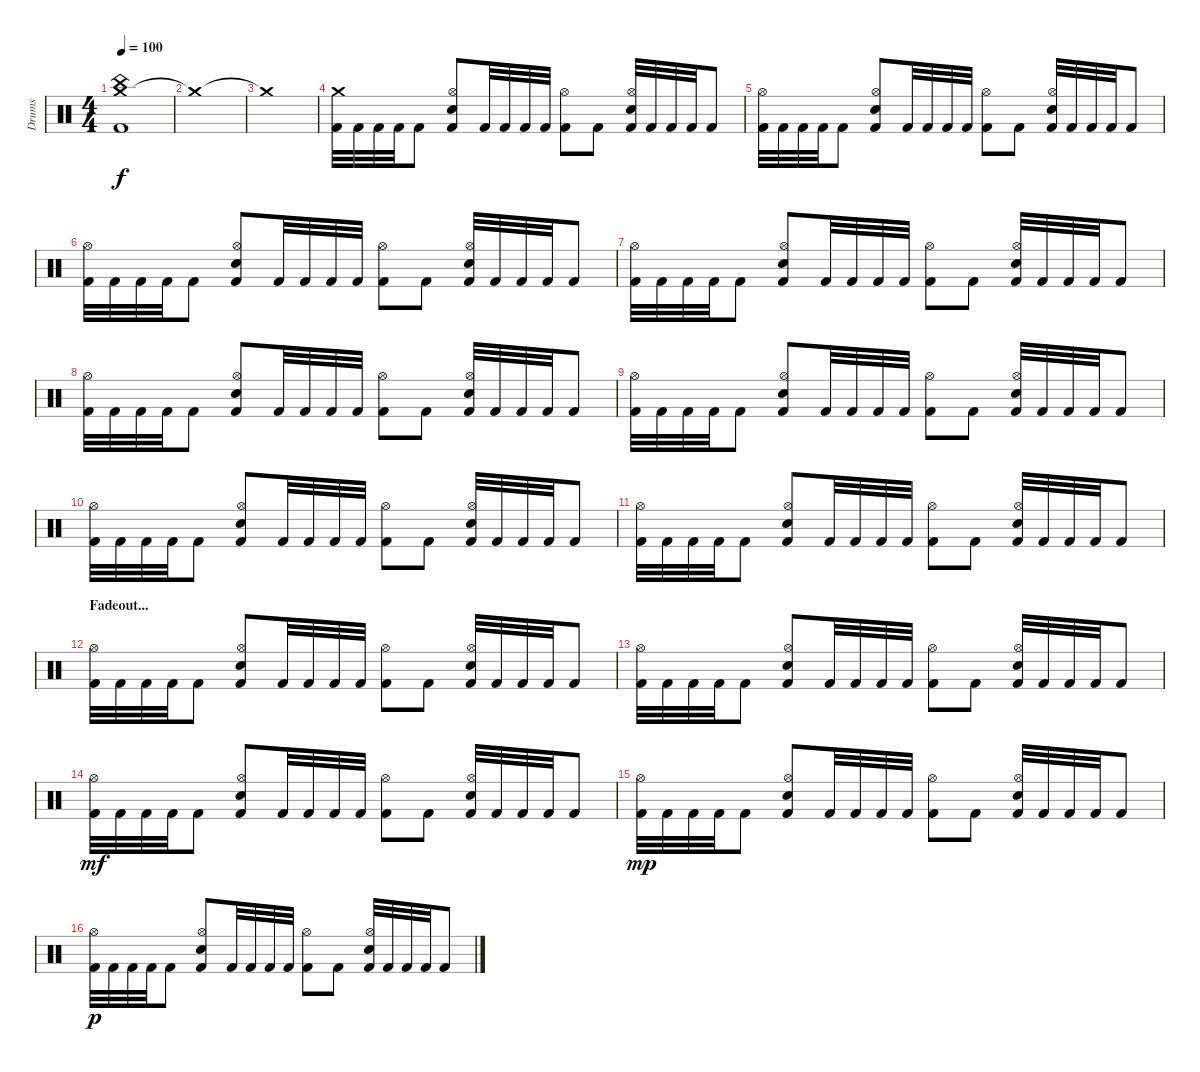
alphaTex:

\track ("Drums" "Drums") {instrument percussion}
\staff {score}
\articulation defaults
\ts (4 4)
\tempo 100
\clef neutral
\ks c
("Crash medium (hit)" "China (hit)" "Kick (hit) 2").1{dy f} |
"Crash medium (hit)"{t}.1 |
"Crash medium (hit)"{t}.1 |
("Crash medium (hit)" "Kick (hit) 2").32 "Kick (hit) 2".32 "Kick (hit) 2".32 "Kick (hit) 2".32 "Kick (hit) 2".8 ("Hi-Hat (open)" "Snare (hit) 2" "Kick (hit) 2").8 "Kick (hit) 2".32 "Kick (hit) 2".32 "Kick (hit) 2".32 "Kick (hit) 2".32 ("Hi-Hat (open)" "Kick (hit) 2").8 "Kick (hit) 2".8 ("Hi-Hat (open)" "Snare (hit) 2" "Kick (hit) 2").32 "Kick (hit) 2".32 "Kick (hit) 2".32 "Kick (hit) 2".32 "Kick (hit) 2".8 |
("Hi-Hat (open)" "Kick (hit) 2").32 "Kick (hit) 2".32 "Kick (hit) 2".32 "Kick (hit) 2".32 "Kick (hit) 2".8 ("Hi-Hat (open)" "Snare (hit) 2" "Kick (hit) 2").8 "Kick (hit) 2".32 "Kick (hit) 2".32 "Kick (hit) 2".32 "Kick (hit) 2".32 ("Hi-Hat (open)" "Kick (hit) 2").8 "Kick (hit) 2".8 ("Hi-Hat (open)" "Snare (hit) 2" "Kick (hit) 2").32 "Kick (hit) 2".32 "Kick (hit) 2".32 "Kick (hit) 2".32 "Kick (hit) 2".8 |
("Hi-Hat (open)" "Kick (hit) 2").32 "Kick (hit) 2".32 "Kick (hit) 2".32 "Kick (hit) 2".32 "Kick (hit) 2".8 ("Hi-Hat (open)" "Snare (hit) 2" "Kick (hit) 2").8 "Kick (hit) 2".32 "Kick (hit) 2".32 "Kick (hit) 2".32 "Kick (hit) 2".32 ("Hi-Hat (open)" "Kick (hit) 2").8 "Kick (hit) 2".8 ("Hi-Hat (open)" "Snare (hit) 2" "Kick (hit) 2").32 "Kick (hit) 2".32 "Kick (hit) 2".32 "Kick (hit) 2".32 "Kick (hit) 2".8 |
("Hi-Hat (open)" "Kick (hit) 2").32 "Kick (hit) 2".32 "Kick (hit) 2".32 "Kick (hit) 2".32 "Kick (hit) 2".8 ("Hi-Hat (open)" "Snare (hit) 2" "Kick (hit) 2").8 "Kick (hit) 2".32 "Kick (hit) 2".32 "Kick (hit) 2".32 "Kick (hit) 2".32 ("Hi-Hat (open)" "Kick (hit) 2").8 "Kick (hit) 2".8 ("Hi-Hat (open)" "Snare (hit) 2" "Kick (hit) 2").32 "Kick (hit) 2".32 "Kick (hit) 2".32 "Kick (hit) 2".32 "Kick (hit) 2".8 |
("Hi-Hat (open)" "Kick (hit) 2").32 "Kick (hit) 2".32 "Kick (hit) 2".32 "Kick (hit) 2".32 "Kick (hit) 2".8 ("Hi-Hat (open)" "Snare (hit) 2" "Kick (hit) 2").8 "Kick (hit) 2".32 "Kick (hit) 2".32 "Kick (hit) 2".32 "Kick (hit) 2".32 ("Hi-Hat (open)" "Kick (hit) 2").8 "Kick (hit) 2".8 ("Hi-Hat (open)" "Snare (hit) 2" "Kick (hit) 2").32 "Kick (hit) 2".32 "Kick (hit) 2".32 "Kick (hit) 2".32 "Kick (hit) 2".8 |
("Hi-Hat (open)" "Kick (hit) 2").32 "Kick (hit) 2".32 "Kick (hit) 2".32 "Kick (hit) 2".32 "Kick (hit) 2".8 ("Hi-Hat (open)" "Snare (hit) 2" "Kick (hit) 2").8 "Kick (hit) 2".32 "Kick (hit) 2".32 "Kick (hit) 2".32 "Kick (hit) 2".32 ("Hi-Hat (open)" "Kick (hit) 2").8 "Kick (hit) 2".8 ("Hi-Hat (open)" "Snare (hit) 2" "Kick (hit) 2").32 "Kick (hit) 2".32 "Kick (hit) 2".32 "Kick (hit) 2".32 "Kick (hit) 2".8 |
("Hi-Hat (open)" "Kick (hit) 2").32 "Kick (hit) 2".32 "Kick (hit) 2".32 "Kick (hit) 2".32 "Kick (hit) 2".8 ("Hi-Hat (open)" "Snare (hit) 2" "Kick (hit) 2").8 "Kick (hit) 2".32 "Kick (hit) 2".32 "Kick (hit) 2".32 "Kick (hit) 2".32 ("Hi-Hat (open)" "Kick (hit) 2").8 "Kick (hit) 2".8 ("Hi-Hat (open)" "Snare (hit) 2" "Kick (hit) 2").32 "Kick (hit) 2".32 "Kick (hit) 2".32 "Kick (hit) 2".32 "Kick (hit) 2".8 |
("Hi-Hat (open)" "Kick (hit) 2").32 "Kick (hit) 2".32 "Kick (hit) 2".32 "Kick (hit) 2".32 "Kick (hit) 2".8 ("Hi-Hat (open)" "Snare (hit) 2" "Kick (hit) 2").8 "Kick (hit) 2".32 "Kick (hit) 2".32 "Kick (hit) 2".32 "Kick (hit) 2".32 ("Hi-Hat (open)" "Kick (hit) 2").8 "Kick (hit) 2".8 ("Hi-Hat (open)" "Snare (hit) 2" "Kick (hit) 2").32 "Kick (hit) 2".32 "Kick (hit) 2".32 "Kick (hit) 2".32 "Kick (hit) 2".8 |
\section ("" "Fadeout...")
("Hi-Hat (open)" "Kick (hit) 2").32 "Kick (hit) 2".32 "Kick (hit) 2".32 "Kick (hit) 2".32 "Kick (hit) 2".8 ("Hi-Hat (open)" "Snare (hit) 2" "Kick (hit) 2").8 "Kick (hit) 2".32 "Kick (hit) 2".32 "Kick (hit) 2".32 "Kick (hit) 2".32 ("Hi-Hat (open)" "Kick (hit) 2").8 "Kick (hit) 2".8 ("Hi-Hat (open)" "Snare (hit) 2" "Kick (hit) 2").32 "Kick (hit) 2".32 "Kick (hit) 2".32 "Kick (hit) 2".32 "Kick (hit) 2".8 |
("Hi-Hat (open)" "Kick (hit) 2").32 "Kick (hit) 2".32 "Kick (hit) 2".32 "Kick (hit) 2".32 "Kick (hit) 2".8 ("Hi-Hat (open)" "Snare (hit) 2" "Kick (hit) 2").8 "Kick (hit) 2".32 "Kick (hit) 2".32 "Kick (hit) 2".32 "Kick (hit) 2".32 ("Hi-Hat (open)" "Kick (hit) 2").8 "Kick (hit) 2".8 ("Hi-Hat (open)" "Snare (hit) 2" "Kick (hit) 2").32 "Kick (hit) 2".32 "Kick (hit) 2".32 "Kick (hit) 2".32 "Kick (hit) 2".8 |
("Hi-Hat (open)" "Kick (hit) 2").32{dy mf} "Kick (hit) 2".32 "Kick (hit) 2".32 "Kick (hit) 2".32 "Kick (hit) 2".8 ("Hi-Hat (open)" "Snare (hit) 2" "Kick (hit) 2").8 "Kick (hit) 2".32 "Kick (hit) 2".32 "Kick (hit) 2".32 "Kick (hit) 2".32 ("Hi-Hat (open)" "Kick (hit) 2").8 "Kick (hit) 2".8 ("Hi-Hat (open)" "Snare (hit) 2" "Kick (hit) 2").32 "Kick (hit) 2".32 "Kick (hit) 2".32 "Kick (hit) 2".32 "Kick (hit) 2".8 |
("Hi-Hat (open)" "Kick (hit) 2").32{dy mp} "Kick (hit) 2".32 "Kick (hit) 2".32 "Kick (hit) 2".32 "Kick (hit) 2".8 ("Hi-Hat (open)" "Snare (hit) 2" "Kick (hit) 2").8 "Kick (hit) 2".32 "Kick (hit) 2".32 "Kick (hit) 2".32 "Kick (hit) 2".32 ("Hi-Hat (open)" "Kick (hit) 2").8 "Kick (hit) 2".8 ("Hi-Hat (open)" "Snare (hit) 2" "Kick (hit) 2").32 "Kick (hit) 2".32 "Kick (hit) 2".32 "Kick (hit) 2".32 "Kick (hit) 2".8 |
("Hi-Hat (open)" "Kick (hit) 2").32{dy p} "Kick (hit) 2".32 "Kick (hit) 2".32 "Kick (hit) 2".32 "Kick (hit) 2".8 ("Hi-Hat (open)" "Snare (hit) 2" "Kick (hit) 2").8 "Kick (hit) 2".32 "Kick (hit) 2".32 "Kick (hit) 2".32 "Kick (hit) 2".32 ("Hi-Hat (open)" "Kick (hit) 2").8 "Kick (hit) 2".8 ("Hi-Hat (open)" "Snare (hit) 2" "Kick (hit) 2").32 "Kick (hit) 2".32 "Kick (hit) 2".32 "Kick (hit) 2".32 "Kick (hit) 2".8
